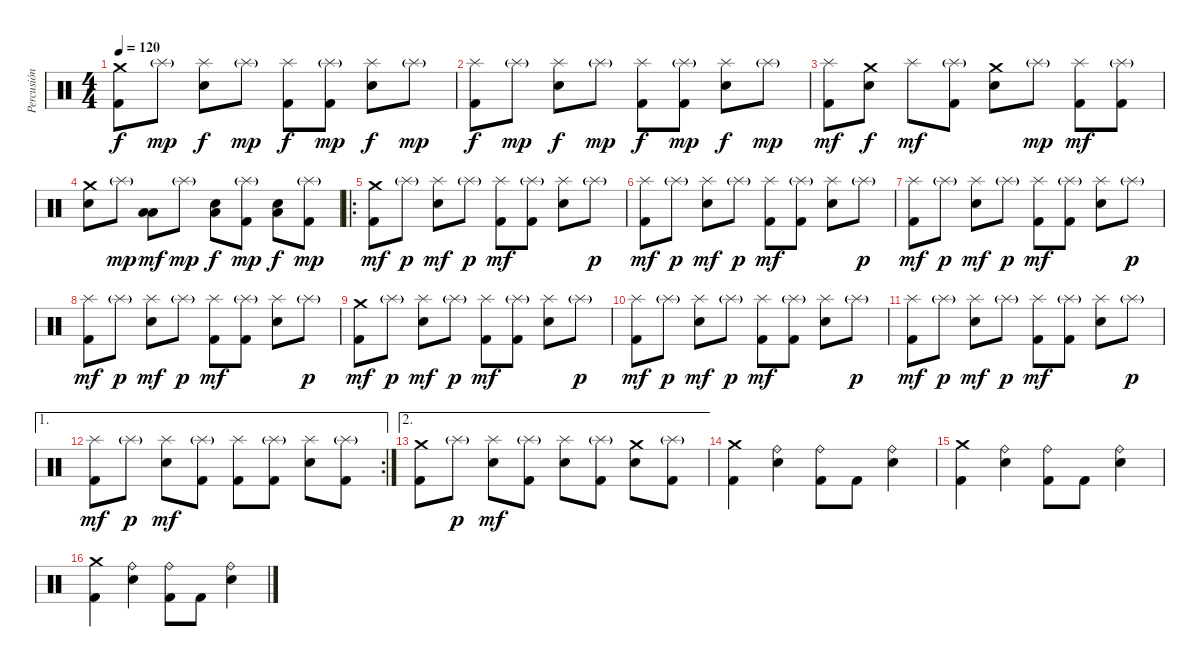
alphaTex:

\track ("Percusión" "Percusión") {instrument percussion}
\staff {score}
\articulation defaults
\ts (4 4)
\tempo 120
\clef neutral
\ks c
("Crash medium (hit)" "Kick (hit) 2").8{dy f} "Splash (hit)"{g}.8{dy mp} ("Splash (hit)" "Electric Snare (hit)").8{dy f} "Splash (hit)"{g}.8{dy mp} ("Splash (hit)" "Kick (hit) 2").8{dy f} ("Splash (hit)"{g} "Kick (hit) 2").8{dy mp} ("Splash (hit)" "Electric Snare (hit)").8{dy f} "Splash (hit)"{g}.8{dy mp} |
("Splash (hit)" "Kick (hit) 2").8{dy f} "Splash (hit)"{g}.8{dy mp} ("Splash (hit)" "Electric Snare (hit)").8{dy f} "Splash (hit)"{g}.8{dy mp} ("Splash (hit)" "Kick (hit) 2").8{dy f} ("Splash (hit)"{g} "Kick (hit) 2").8{dy mp} ("Splash (hit)" "Electric Snare (hit)").8{dy f} "Splash (hit)"{g}.8{dy mp} |
("Splash (hit)" "Kick (hit) 2").8{dy mf} ("Crash medium (hit)" "Electric Snare (hit)").8{dy f} "Splash (hit)".8{dy mf} ("Splash (hit)"{g} "Kick (hit) 2").8 ("Crash medium (hit)" "Electric Snare (hit)").8 "Splash (hit)"{g}.8{dy mp} ("Splash (hit)" "Kick (hit) 2").8{dy mf} ("Splash (hit)"{g} "Kick (hit) 2").8 |
("Crash medium (hit)" "Electric Snare (hit)").8 "Splash (hit)"{g}.8{dy mp} ("Low Tom (hit)" "Low Floor Tom (hit)").8{dy mf} "Splash (hit)"{g}.8{dy mp} ("Low Floor Tom (hit)" "Electric Snare (hit)").8{dy f} ("Splash (hit)"{g} "Kick (hit) 2").8{dy mp} ("Low Floor Tom (hit)" "Electric Snare (hit)").8{dy f} ("Splash (hit)"{g} "Kick (hit) 2").8{dy mp} |
\ro
("Crash medium (hit)" "Kick (hit) 2").8{dy mf} "Splash (hit)"{g}.8{dy p} ("Splash (hit)" "Electric Snare (hit)").8{dy mf} "Splash (hit)"{g}.8{dy p} ("Splash (hit)" "Kick (hit) 2").8{dy mf} ("Splash (hit)"{g} "Kick (hit) 2").8 ("Splash (hit)" "Electric Snare (hit)").8 "Splash (hit)"{g}.8{dy p} |
("Splash (hit)" "Kick (hit) 2").8{dy mf} "Splash (hit)"{g}.8{dy p} ("Splash (hit)" "Electric Snare (hit)").8{dy mf} "Splash (hit)"{g}.8{dy p} ("Splash (hit)" "Kick (hit) 2").8{dy mf} ("Splash (hit)"{g} "Kick (hit) 2").8 ("Splash (hit)" "Electric Snare (hit)").8 "Splash (hit)"{g}.8{dy p} |
("Splash (hit)" "Kick (hit) 2").8{dy mf} "Splash (hit)"{g}.8{dy p} ("Splash (hit)" "Electric Snare (hit)").8{dy mf} "Splash (hit)"{g}.8{dy p} ("Splash (hit)" "Kick (hit) 2").8{dy mf} ("Splash (hit)"{g} "Kick (hit) 2").8 ("Splash (hit)" "Electric Snare (hit)").8 "Splash (hit)"{g}.8{dy p} |
("Splash (hit)" "Kick (hit) 2").8{dy mf} "Splash (hit)"{g}.8{dy p} ("Splash (hit)" "Electric Snare (hit)").8{dy mf} "Splash (hit)"{g}.8{dy p} ("Splash (hit)" "Kick (hit) 2").8{dy mf} ("Splash (hit)"{g} "Kick (hit) 2").8 ("Splash (hit)" "Electric Snare (hit)").8 "Splash (hit)"{g}.8{dy p} |
("Crash medium (hit)" "Kick (hit) 2").8{dy mf} "Splash (hit)"{g}.8{dy p} ("Splash (hit)" "Electric Snare (hit)").8{dy mf} "Splash (hit)"{g}.8{dy p} ("Splash (hit)" "Kick (hit) 2").8{dy mf} ("Splash (hit)"{g} "Kick (hit) 2").8 ("Splash (hit)" "Electric Snare (hit)").8 "Splash (hit)"{g}.8{dy p} |
("Splash (hit)" "Kick (hit) 2").8{dy mf} "Splash (hit)"{g}.8{dy p} ("Splash (hit)" "Electric Snare (hit)").8{dy mf} "Splash (hit)"{g}.8{dy p} ("Splash (hit)" "Kick (hit) 2").8{dy mf} ("Splash (hit)"{g} "Kick (hit) 2").8 ("Splash (hit)" "Electric Snare (hit)").8 "Splash (hit)"{g}.8{dy p} |
("Splash (hit)" "Kick (hit) 2").8{dy mf} "Splash (hit)"{g}.8{dy p} ("Splash (hit)" "Electric Snare (hit)").8{dy mf} "Splash (hit)"{g}.8{dy p} ("Splash (hit)" "Kick (hit) 2").8{dy mf} ("Splash (hit)"{g} "Kick (hit) 2").8 ("Splash (hit)" "Electric Snare (hit)").8 "Splash (hit)"{g}.8{dy p} |
\ae 1
\rc 2
("Splash (hit)" "Kick (hit) 2").8{dy mf} "Splash (hit)"{g}.8{dy p} ("Splash (hit)" "Electric Snare (hit)").8{dy mf} ("Splash (hit)"{g} "Kick (hit) 2").8 ("Splash (hit)" "Kick (hit) 2").8 ("Splash (hit)"{g} "Kick (hit) 2").8 ("Splash (hit)" "Electric Snare (hit)").8 ("Splash (hit)"{g} "Kick (hit) 2").8 |
\ae 2
("Crash medium (hit)" "Kick (hit) 2").8 "Splash (hit)"{g}.8{dy p} ("Splash (hit)" "Electric Snare (hit)").8{dy mf} ("Splash (hit)"{g} "Kick (hit) 2").8 ("Splash (hit)" "Electric Snare (hit)").8 ("Splash (hit)"{g} "Kick (hit) 2").8 ("Crash medium (hit)" "Electric Snare (hit)").8 ("Splash (hit)"{g} "Kick (hit) 2").8 |
("Crash medium (hit)" "Kick (hit) 2").4 ("Ride (bell)" "Electric Snare (hit)").4 ("Ride (bell)" "Kick (hit) 2").8 "Kick (hit) 2".8 ("Ride (bell)" "Electric Snare (hit)").4 |
("Crash medium (hit)" "Kick (hit) 2").4 ("Ride (bell)" "Electric Snare (hit)").4 ("Ride (bell)" "Kick (hit) 2").8 "Kick (hit) 2".8 ("Ride (bell)" "Electric Snare (hit)").4 |
("Crash medium (hit)" "Kick (hit) 2").4 ("Ride (bell)" "Electric Snare (hit)").4 ("Ride (bell)" "Kick (hit) 2").8 "Kick (hit) 2".8 ("Ride (bell)" "Electric Snare (hit)").4
